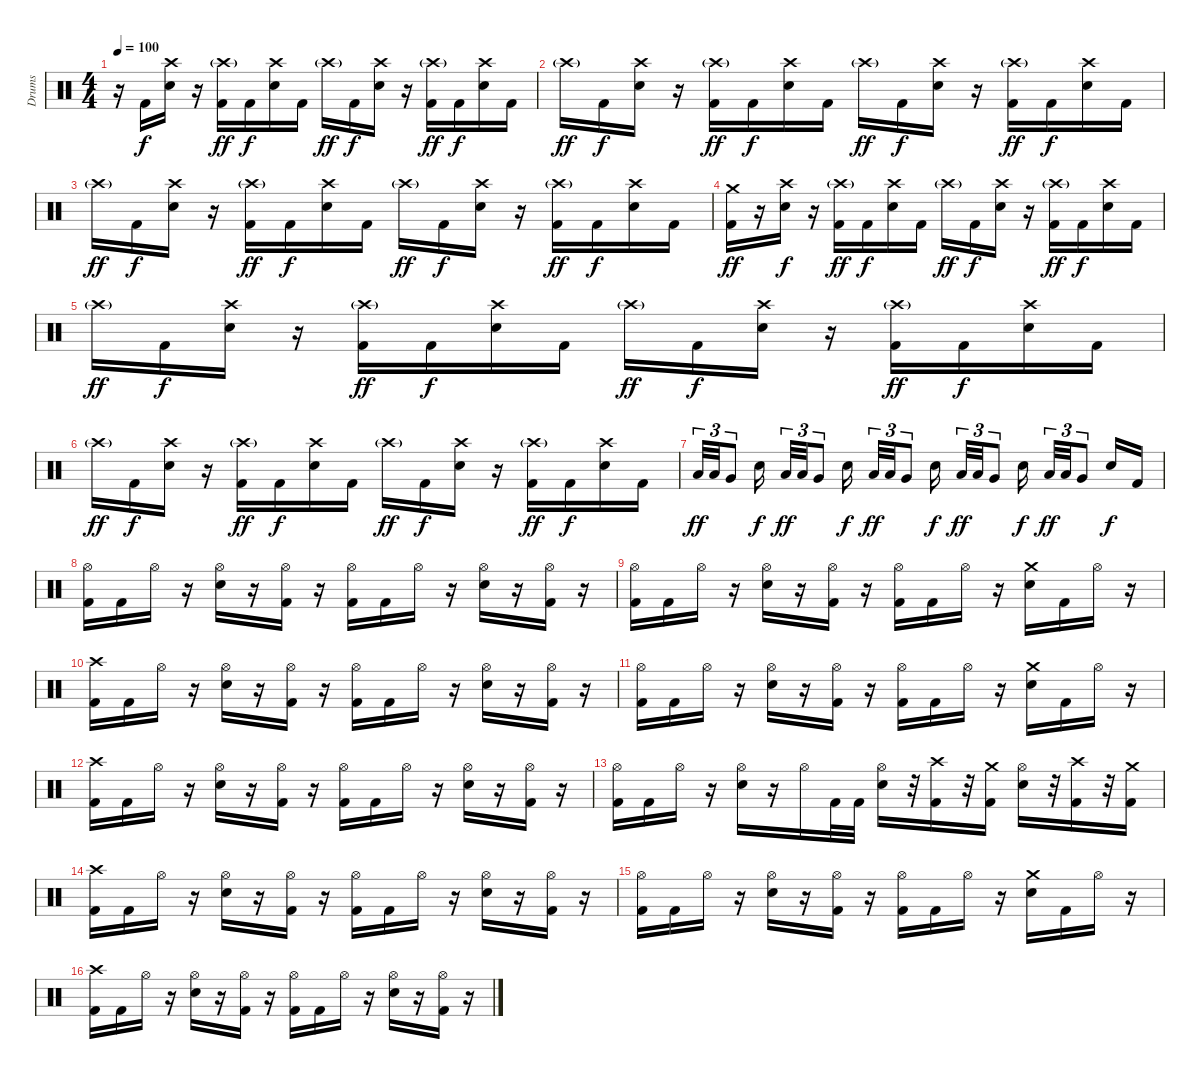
\track ("Drums" "Drums") {instrument percussion}
\staff {score}
\articulation defaults
\ts (4 4)
\tempo 100
\clef neutral
\ks c
r.16{dy f} "Kick (hit) 2".16 ("Crash high (hit)" "Snare (hit) 2").16 r.16 ("Crash high (hit)"{g} "Kick (hit) 2").16{dy ff} "Kick (hit) 2".16{dy f} ("Crash high (hit)" "Snare (hit) 2").16 "Kick (hit) 2".16 "Crash high (hit)"{g}.16{dy ff} "Kick (hit) 2".16{dy f} ("Crash high (hit)" "Snare (hit) 2").16 r.16 ("Crash high (hit)"{g} "Kick (hit) 2").16{dy ff} "Kick (hit) 2".16{dy f} ("Crash high (hit)" "Snare (hit) 2").16 "Kick (hit) 2".16 |
"Crash high (hit)"{g}.16{dy ff} "Kick (hit) 2".16{dy f} ("Crash high (hit)" "Snare (hit) 2").16 r.16 ("Crash high (hit)"{g} "Kick (hit) 2").16{dy ff} "Kick (hit) 2".16{dy f} ("Crash high (hit)" "Snare (hit) 2").16 "Kick (hit) 2".16 "Crash high (hit)"{g}.16{dy ff} "Kick (hit) 2".16{dy f} ("Crash high (hit)" "Snare (hit) 2").16 r.16 ("Crash high (hit)"{g} "Kick (hit) 2").16{dy ff} "Kick (hit) 2".16{dy f} ("Crash high (hit)" "Snare (hit) 2").16 "Kick (hit) 2".16 |
"Crash high (hit)"{g}.16{dy ff} "Kick (hit) 2".16{dy f} ("Crash high (hit)" "Snare (hit) 2").16 r.16 ("Crash high (hit)"{g} "Kick (hit) 2").16{dy ff} "Kick (hit) 2".16{dy f} ("Crash high (hit)" "Snare (hit) 2").16 "Kick (hit) 2".16 "Crash high (hit)"{g}.16{dy ff} "Kick (hit) 2".16{dy f} ("Crash high (hit)" "Snare (hit) 2").16 r.16 ("Crash high (hit)"{g} "Kick (hit) 2").16{dy ff} "Kick (hit) 2".16{dy f} ("Crash high (hit)" "Snare (hit) 2").16 "Kick (hit) 2".16 |
("Crash medium (hit)" "Kick (hit) 2").16{dy ff} r.16 ("Crash high (hit)" "Snare (hit) 2").16{dy f} r.16 ("Crash high (hit)"{g} "Kick (hit) 2").16{dy ff} "Kick (hit) 2".16{dy f} ("Crash high (hit)" "Snare (hit) 2").16 "Kick (hit) 2".16 "Crash high (hit)"{g}.16{dy ff} "Kick (hit) 2".16{dy f} ("Crash high (hit)" "Snare (hit) 2").16 r.16 ("Crash high (hit)"{g} "Kick (hit) 2").16{dy ff} "Kick (hit) 2".16{dy f} ("Crash high (hit)" "Snare (hit) 2").16 "Kick (hit) 2".16 |
"Crash high (hit)"{g}.16{dy ff} "Kick (hit) 2".16{dy f} ("Crash high (hit)" "Snare (hit) 2").16 r.16 ("Crash high (hit)"{g} "Kick (hit) 2").16{dy ff} "Kick (hit) 2".16{dy f} ("Crash high (hit)" "Snare (hit) 2").16 "Kick (hit) 2".16 "Crash high (hit)"{g}.16{dy ff} "Kick (hit) 2".16{dy f} ("Crash high (hit)" "Snare (hit) 2").16 r.16 ("Crash high (hit)"{g} "Kick (hit) 2").16{dy ff} "Kick (hit) 2".16{dy f} ("Crash high (hit)" "Snare (hit) 2").16 "Kick (hit) 2".16 |
"Crash high (hit)"{g}.16{dy ff} "Kick (hit) 2".16{dy f} ("Crash high (hit)" "Snare (hit) 2").16 r.16 ("Crash high (hit)"{g} "Kick (hit) 2").16{dy ff} "Kick (hit) 2".16{dy f} ("Crash high (hit)" "Snare (hit) 2").16 "Kick (hit) 2".16 "Crash high (hit)"{g}.16{dy ff} "Kick (hit) 2".16{dy f} ("Crash high (hit)" "Snare (hit) 2").16 r.16 ("Crash high (hit)"{g} "Kick (hit) 2").16{dy ff} "Kick (hit) 2".16{dy f} ("Crash high (hit)" "Snare (hit) 2").16 "Kick (hit) 2".16 |
"Low Tom (hit)".32{tu (3 2) dy ff} "Low Tom (hit)".32{tu (3 2)} "Very Low Tom (hit)".8{tu (3 2)} "Snare (hit) 2".16{dy f beam splitsecondary} "Low Tom (hit)".32{tu (3 2) dy ff} "Low Tom (hit)".32{tu (3 2)} "Very Low Tom (hit)".8{tu (3 2)} "Snare (hit) 2".16{dy f beam splitsecondary} "Low Tom (hit)".32{tu (3 2) dy ff} "Low Tom (hit)".32{tu (3 2)} "Very Low Tom (hit)".8{tu (3 2)} "Snare (hit) 2".16{dy f beam splitsecondary} "Low Tom (hit)".32{tu (3 2) dy ff} "Low Tom (hit)".32{tu (3 2)} "Very Low Tom (hit)".8{tu (3 2)} "Snare (hit) 2".16{dy f} "Low Tom (hit)".32{tu (3 2) dy ff} "Low Tom (hit)".32{tu (3 2)} "Very Low Tom (hit)".8{tu (3 2)} "Snare (hit) 2".16{dy f} "Kick (hit) 2".16 |
("Hi-Hat (open)" "Kick (hit) 2").16 "Kick (hit) 2".16 "Hi-Hat (open)".16 r.16 ("Hi-Hat (open)" "Snare (hit) 2").16 r.16 ("Hi-Hat (open)" "Kick (hit) 2").16 r.16 ("Hi-Hat (open)" "Kick (hit) 2").16 "Kick (hit) 2".16 "Hi-Hat (open)".16 r.16 ("Hi-Hat (open)" "Snare (hit) 2").16 r.16 ("Hi-Hat (open)" "Kick (hit) 2").16 r.16 |
("Hi-Hat (open)" "Kick (hit) 2").16 "Kick (hit) 2".16 "Hi-Hat (open)".16 r.16 ("Hi-Hat (open)" "Snare (hit) 2").16 r.16 ("Hi-Hat (open)" "Kick (hit) 2").16 r.16 ("Hi-Hat (open)" "Kick (hit) 2").16 "Kick (hit) 2".16 "Hi-Hat (open)".16 r.16 ("Crash medium (hit)" "Snare (hit) 2").16 "Kick (hit) 2".16 "Hi-Hat (open)".16 r.16 |
("Crash high (hit)" "Kick (hit) 2").16 "Kick (hit) 2".16 "Hi-Hat (open)".16 r.16 ("Hi-Hat (open)" "Snare (hit) 2").16 r.16 ("Hi-Hat (open)" "Kick (hit) 2").16 r.16 ("Hi-Hat (open)" "Kick (hit) 2").16 "Kick (hit) 2".16 "Hi-Hat (open)".16 r.16 ("Hi-Hat (open)" "Snare (hit) 2").16 r.16 ("Hi-Hat (open)" "Kick (hit) 2").16 r.16 |
("Hi-Hat (open)" "Kick (hit) 2").16 "Kick (hit) 2".16 "Hi-Hat (open)".16 r.16 ("Hi-Hat (open)" "Snare (hit) 2").16 r.16 ("Hi-Hat (open)" "Kick (hit) 2").16 r.16 ("Hi-Hat (open)" "Kick (hit) 2").16 "Kick (hit) 2".16 "Hi-Hat (open)".16 r.16 ("Crash medium (hit)" "Snare (hit) 2").16 "Kick (hit) 2".16 "Hi-Hat (open)".16 r.16 |
("Crash high (hit)" "Kick (hit) 2").16 "Kick (hit) 2".16 "Hi-Hat (open)".16 r.16 ("Hi-Hat (open)" "Snare (hit) 2").16 r.16 ("Hi-Hat (open)" "Kick (hit) 2").16 r.16 ("Hi-Hat (open)" "Kick (hit) 2").16 "Kick (hit) 2".16 "Hi-Hat (open)".16 r.16 ("Hi-Hat (open)" "Snare (hit) 2").16 r.16 ("Hi-Hat (open)" "Kick (hit) 2").16 r.16 |
("Hi-Hat (open)" "Kick (hit) 2").16 "Kick (hit) 2".16 "Hi-Hat (open)".16 r.16 ("Hi-Hat (open)" "Snare (hit) 2").16 r.16 "Hi-Hat (open)".16 "Kick (hit) 2".32 "Kick (hit) 2".32 ("Hi-Hat (open)" "Snare (hit) 2").16 r.32 ("Crash high (hit)" "Kick (hit) 2").16 r.32 ("Crash medium (hit)" "Kick (hit) 2").16 ("Hi-Hat (open)" "Snare (hit) 2").16 r.32 ("Crash high (hit)" "Kick (hit) 2").16 r.32 ("Crash medium (hit)" "Kick (hit) 2").16 |
("Crash high (hit)" "Kick (hit) 2").16 "Kick (hit) 2".16 "Hi-Hat (open)".16 r.16 ("Hi-Hat (open)" "Snare (hit) 2").16 r.16 ("Hi-Hat (open)" "Kick (hit) 2").16 r.16 ("Hi-Hat (open)" "Kick (hit) 2").16 "Kick (hit) 2".16 "Hi-Hat (open)".16 r.16 ("Hi-Hat (open)" "Snare (hit) 2").16 r.16 ("Hi-Hat (open)" "Kick (hit) 2").16 r.16 |
("Hi-Hat (open)" "Kick (hit) 2").16 "Kick (hit) 2".16 "Hi-Hat (open)".16 r.16 ("Hi-Hat (open)" "Snare (hit) 2").16 r.16 ("Hi-Hat (open)" "Kick (hit) 2").16 r.16 ("Hi-Hat (open)" "Kick (hit) 2").16 "Kick (hit) 2".16 "Hi-Hat (open)".16 r.16 ("Crash medium (hit)" "Snare (hit) 2").16 "Kick (hit) 2".16 "Hi-Hat (open)".16 r.16 |
("Crash high (hit)" "Kick (hit) 2").16 "Kick (hit) 2".16 "Hi-Hat (open)".16 r.16 ("Hi-Hat (open)" "Snare (hit) 2").16 r.16 ("Hi-Hat (open)" "Kick (hit) 2").16 r.16 ("Hi-Hat (open)" "Kick (hit) 2").16 "Kick (hit) 2".16 "Hi-Hat (open)".16 r.16 ("Hi-Hat (open)" "Snare (hit) 2").16 r.16 ("Hi-Hat (open)" "Kick (hit) 2").16 r.16
